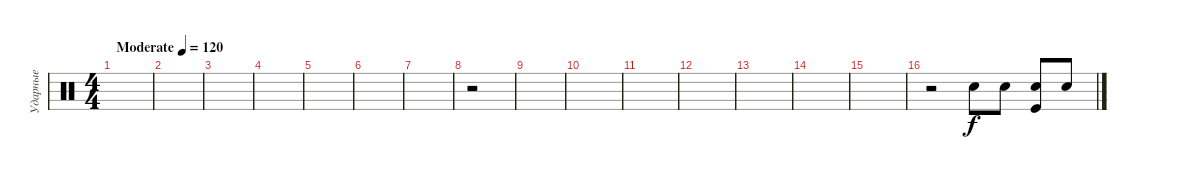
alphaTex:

\track ("Ударные" "Ударные") {instrument percussion}
\staff {score}
\articulation defaults
\ts (4 4)
\tempo (120 "Moderate")
\clef neutral
\ks c
|
|
|
|
|
|
|
r.2 |
|
|
|
|
|
|
|
r.2 "Electric Snare (hit)".8 "Electric Snare (hit)".8 ("Electric Snare (hit)" "Kick (hit)").8 "Electric Snare (hit)".8
